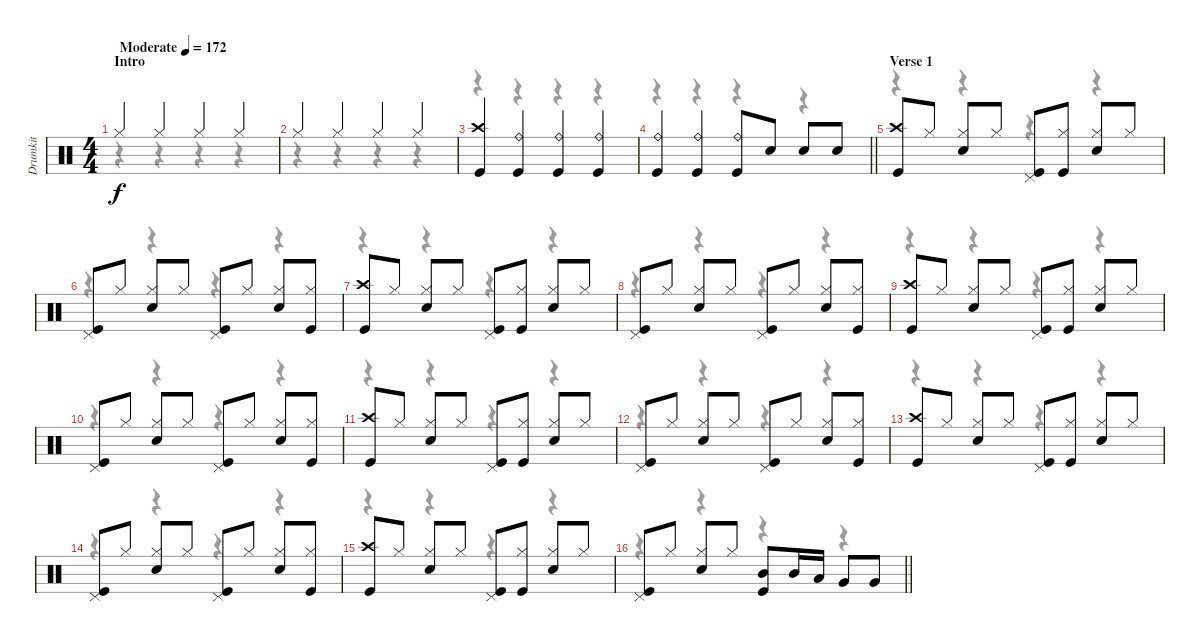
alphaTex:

\track ("Drumkit" "Drumkit") {instrument percussion}
\staff {score}
\articulation defaults
\voice
\ts (4 4)
\section ("" "Intro")
\tempo (172 "Moderate")
\clef neutral
\ks c "Hi-Hat (closed)".4{dy f} "Hi-Hat (closed)".4 "Hi-Hat (closed)".4 "Hi-Hat (closed)".4
|
"Hi-Hat (closed)".4 "Hi-Hat (closed)".4 "Hi-Hat (closed)".4 "Hi-Hat (closed)".4 |
("Crash high (hit)" "Kick (hit)").4 ("Ride (bell)" "Kick (hit)").4 ("Ride (bell)" "Kick (hit)").4 ("Ride (bell)" "Kick (hit)").4 |
\barLineRight lightlight
("Ride (bell)" "Kick (hit)").4 ("Ride (bell)" "Kick (hit)").4 ("Ride (bell)" "Kick (hit)").8 "Snare (hit) 2".8 "Snare (hit) 2".8 "Snare (hit) 2".8 |
\section ("" "Verse 1")
("Crash high (hit)" "Kick (hit)").8 "Hi-Hat (closed)".8 ("Hi-Hat (closed)" "Snare (hit) 2").8 "Hi-Hat (closed)".8 ("Pedal Hi-Hat (hit)" "Kick (hit)").8 ("Hi-Hat (closed)" "Kick (hit)").8 ("Hi-Hat (closed)" "Snare (hit) 2").8 "Hi-Hat (closed)".8 |
("Pedal Hi-Hat (hit)" "Kick (hit)").8 "Hi-Hat (closed)".8 ("Hi-Hat (closed)" "Snare (hit) 2").8 "Hi-Hat (closed)".8 ("Pedal Hi-Hat (hit)" "Kick (hit)").8 "Hi-Hat (closed)".8 ("Hi-Hat (closed)" "Snare (hit) 2").8 ("Hi-Hat (closed)" "Kick (hit)").8 |
("Crash high (hit)" "Kick (hit)").8 "Hi-Hat (closed)".8 ("Hi-Hat (closed)" "Snare (hit) 2").8 "Hi-Hat (closed)".8 ("Pedal Hi-Hat (hit)" "Kick (hit)").8 ("Hi-Hat (closed)" "Kick (hit)").8 ("Hi-Hat (closed)" "Snare (hit) 2").8 "Hi-Hat (closed)".8 |
("Pedal Hi-Hat (hit)" "Kick (hit)").8 "Hi-Hat (closed)".8 ("Hi-Hat (closed)" "Snare (hit) 2").8 "Hi-Hat (closed)".8 ("Pedal Hi-Hat (hit)" "Kick (hit)").8 "Hi-Hat (closed)".8 ("Hi-Hat (closed)" "Snare (hit) 2").8 ("Hi-Hat (closed)" "Kick (hit)").8 |
("Crash high (hit)" "Kick (hit)").8 "Hi-Hat (closed)".8 ("Hi-Hat (closed)" "Snare (hit) 2").8 "Hi-Hat (closed)".8 ("Pedal Hi-Hat (hit)" "Kick (hit)").8 ("Hi-Hat (closed)" "Kick (hit)").8 ("Hi-Hat (closed)" "Snare (hit) 2").8 "Hi-Hat (closed)".8 |
("Pedal Hi-Hat (hit)" "Kick (hit)").8 "Hi-Hat (closed)".8 ("Hi-Hat (closed)" "Snare (hit) 2").8 "Hi-Hat (closed)".8 ("Pedal Hi-Hat (hit)" "Kick (hit)").8 "Hi-Hat (closed)".8 ("Hi-Hat (closed)" "Snare (hit) 2").8 ("Hi-Hat (closed)" "Kick (hit)").8 |
("Crash high (hit)" "Kick (hit)").8 "Hi-Hat (closed)".8 ("Hi-Hat (closed)" "Snare (hit) 2").8 "Hi-Hat (closed)".8 ("Pedal Hi-Hat (hit)" "Kick (hit)").8 ("Hi-Hat (closed)" "Kick (hit)").8 ("Hi-Hat (closed)" "Snare (hit) 2").8 "Hi-Hat (closed)".8 |
("Pedal Hi-Hat (hit)" "Kick (hit)").8 "Hi-Hat (closed)".8 ("Hi-Hat (closed)" "Snare (hit) 2").8 "Hi-Hat (closed)".8 ("Pedal Hi-Hat (hit)" "Kick (hit)").8 "Hi-Hat (closed)".8 ("Hi-Hat (closed)" "Snare (hit) 2").8 ("Hi-Hat (closed)" "Kick (hit)").8 |
("Crash high (hit)" "Kick (hit)").8 "Hi-Hat (closed)".8 ("Hi-Hat (closed)" "Snare (hit) 2").8 "Hi-Hat (closed)".8 ("Pedal Hi-Hat (hit)" "Kick (hit)").8 ("Hi-Hat (closed)" "Kick (hit)").8 ("Hi-Hat (closed)" "Snare (hit) 2").8 "Hi-Hat (closed)".8 |
("Pedal Hi-Hat (hit)" "Kick (hit)").8 "Hi-Hat (closed)".8 ("Hi-Hat (closed)" "Snare (hit) 2").8 "Hi-Hat (closed)".8 ("Pedal Hi-Hat (hit)" "Kick (hit)").8 "Hi-Hat (closed)".8 ("Hi-Hat (closed)" "Snare (hit) 2").8 ("Hi-Hat (closed)" "Kick (hit)").8 |
("Crash high (hit)" "Kick (hit)").8 "Hi-Hat (closed)".8 ("Hi-Hat (closed)" "Snare (hit) 2").8 "Hi-Hat (closed)".8 ("Pedal Hi-Hat (hit)" "Kick (hit)").8 ("Hi-Hat (closed)" "Kick (hit)").8 ("Hi-Hat (closed)" "Snare (hit) 2").8 "Hi-Hat (closed)".8 |
\barLineRight lightlight
("Pedal Hi-Hat (hit)" "Kick (hit)").8 "Hi-Hat (closed)".8 ("Hi-Hat (closed)" "Snare (hit) 2").8 "Hi-Hat (closed)".8 ("Mid Tom (hit)" "Kick (hit)").8 "Mid Tom (hit)".16 "Low Tom (hit)".16 "Very Low Tom (hit)".8 "Very Low Tom (hit)".8
\voice
\clef neutral
\ottava regular
\simile none
\ks c
r.4{dy f} r.4 r.4 r.4 |
r.4 r.4 r.4 r.4 |
r.4 r.4 r.4 r.4 |
\barLineRight lightlight
r.4 r.4 r.4 r.4 |
r.4 r.4 r.4 r.4 |
r.4 r.4 r.4 r.4 |
r.4 r.4 r.4 r.4 |
r.4 r.4 r.4 r.4 |
r.4 r.4 r.4 r.4 |
r.4 r.4 r.4 r.4 |
r.4 r.4 r.4 r.4 |
r.4 r.4 r.4 r.4 |
r.4 r.4 r.4 r.4 |
r.4 r.4 r.4 r.4 |
r.4 r.4 r.4 r.4 |
\barLineRight lightlight
r.4 r.4 r.4 r.4
